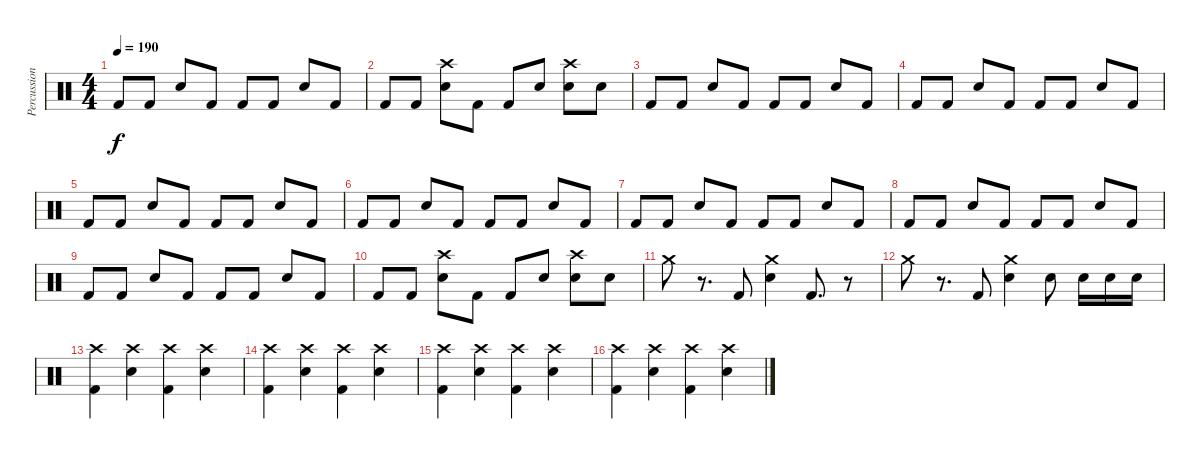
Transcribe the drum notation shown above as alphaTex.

\track ("Percussions" "Percussion") {instrument percussion}
\staff {score}
\articulation defaults
\ts (4 4)
\tempo 190
\clef neutral
\ks c "Kick (hit) 2".8{dy f} "Kick (hit) 2".8 "Electric Snare (hit)".8 "Kick (hit) 2".8 "Kick (hit) 2".8 "Kick (hit) 2".8 "Electric Snare (hit)".8 "Kick (hit) 2".8
|
"Kick (hit) 2".8 "Kick (hit) 2".8 ("Crash high (hit)" "Electric Snare (hit)").8 "Kick (hit) 2".8 "Kick (hit) 2".8 "Electric Snare (hit)".8 ("Crash high (hit)" "Electric Snare (hit)").8 "Electric Snare (hit)".8 |
"Kick (hit) 2".8 "Kick (hit) 2".8 "Electric Snare (hit)".8 "Kick (hit) 2".8 "Kick (hit) 2".8 "Kick (hit) 2".8 "Electric Snare (hit)".8 "Kick (hit) 2".8 |
"Kick (hit) 2".8 "Kick (hit) 2".8 "Electric Snare (hit)".8 "Kick (hit) 2".8 "Kick (hit) 2".8 "Kick (hit) 2".8 "Electric Snare (hit)".8 "Kick (hit) 2".8 |
"Kick (hit) 2".8 "Kick (hit) 2".8 "Electric Snare (hit)".8 "Kick (hit) 2".8 "Kick (hit) 2".8 "Kick (hit) 2".8 "Electric Snare (hit)".8 "Kick (hit) 2".8 |
"Kick (hit) 2".8 "Kick (hit) 2".8 "Electric Snare (hit)".8 "Kick (hit) 2".8 "Kick (hit) 2".8 "Kick (hit) 2".8 "Electric Snare (hit)".8 "Kick (hit) 2".8 |
"Kick (hit) 2".8 "Kick (hit) 2".8 "Electric Snare (hit)".8 "Kick (hit) 2".8 "Kick (hit) 2".8 "Kick (hit) 2".8 "Electric Snare (hit)".8 "Kick (hit) 2".8 |
"Kick (hit) 2".8 "Kick (hit) 2".8 "Electric Snare (hit)".8 "Kick (hit) 2".8 "Kick (hit) 2".8 "Kick (hit) 2".8 "Electric Snare (hit)".8 "Kick (hit) 2".8 |
"Kick (hit) 2".8 "Kick (hit) 2".8 "Electric Snare (hit)".8 "Kick (hit) 2".8 "Kick (hit) 2".8 "Kick (hit) 2".8 "Electric Snare (hit)".8 "Kick (hit) 2".8 |
"Kick (hit) 2".8 "Kick (hit) 2".8 ("Crash high (hit)" "Electric Snare (hit)").8 "Kick (hit) 2".8 "Kick (hit) 2".8 "Electric Snare (hit)".8 ("Crash high (hit)" "Electric Snare (hit)").8 "Electric Snare (hit)".8 |
"Crash medium (hit)".8 r.8{d} "Kick (hit) 2".8 ("Crash medium (hit)" "Electric Snare (hit)").4 "Kick (hit) 2".8{d} r.8 |
"Crash medium (hit)".8 r.8{d} "Kick (hit) 2".8 ("Crash medium (hit)" "Electric Snare (hit)").4 "Electric Snare (hit)".8 "Electric Snare (hit)".16 "Electric Snare (hit)".16 "Electric Snare (hit)".16 |
("Crash high (hit)" "Kick (hit) 2").4 ("Crash high (hit)" "Electric Snare (hit)").4 ("Crash high (hit)" "Kick (hit) 2").4 ("Crash high (hit)" "Electric Snare (hit)").4 |
("Crash high (hit)" "Kick (hit) 2").4 ("Crash high (hit)" "Electric Snare (hit)").4 ("Crash high (hit)" "Kick (hit) 2").4 ("Crash high (hit)" "Electric Snare (hit)").4 |
("Crash high (hit)" "Kick (hit) 2").4 ("Crash high (hit)" "Electric Snare (hit)").4 ("Crash high (hit)" "Kick (hit) 2").4 ("Crash high (hit)" "Electric Snare (hit)").4 |
("Crash high (hit)" "Kick (hit) 2").4 ("Crash high (hit)" "Electric Snare (hit)").4 ("Crash high (hit)" "Kick (hit) 2").4 ("Crash high (hit)" "Electric Snare (hit)").4
